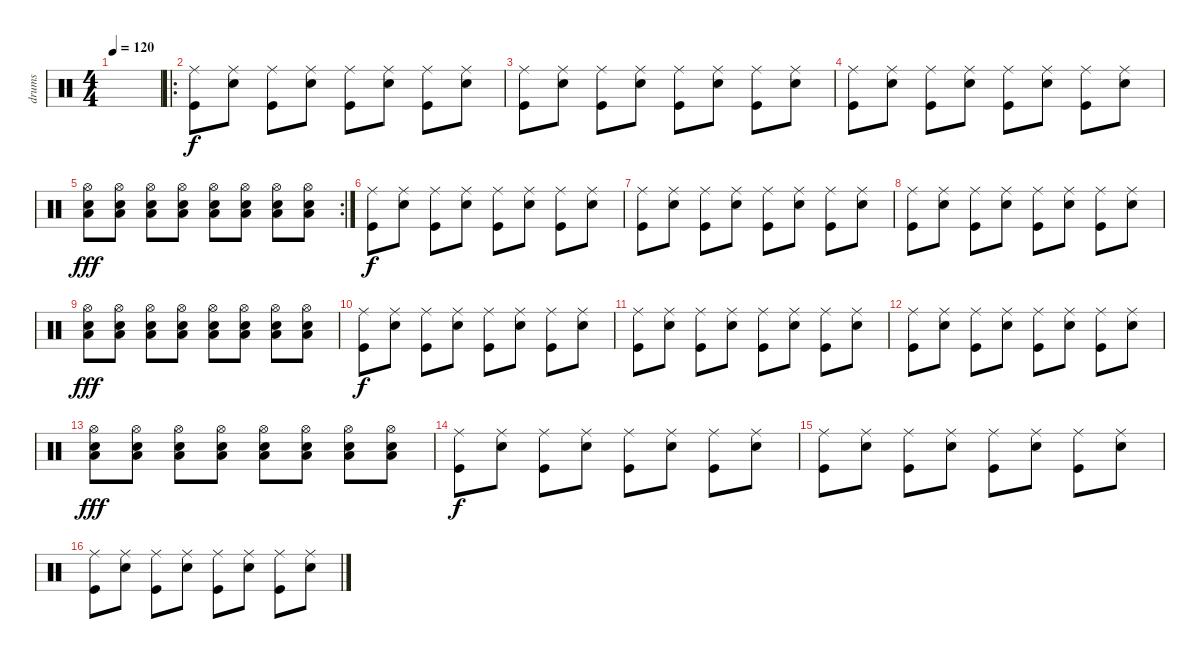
\track ("drums" "drums") {instrument percussion}
\staff {score}
\articulation defaults
\ts (4 4)
\tempo 120
\clef neutral
\ks c
|
\ro
("Ride (middle)" "Kick (hit)").8 ("Ride (middle)" "Snare (hit) 2").8 ("Ride (middle)" "Kick (hit)").8 ("Ride (middle)" "Snare (hit) 2").8 ("Ride (middle)" "Kick (hit)").8 ("Ride (middle)" "Snare (hit) 2").8 ("Ride (middle)" "Kick (hit)").8 ("Ride (middle)" "Snare (hit) 2").8 |
("Ride (middle)" "Kick (hit)").8 ("Ride (middle)" "Snare (hit) 2").8 ("Ride (middle)" "Kick (hit)").8 ("Ride (middle)" "Snare (hit) 2").8 ("Ride (middle)" "Kick (hit)").8 ("Ride (middle)" "Snare (hit) 2").8 ("Ride (middle)" "Kick (hit)").8 ("Ride (middle)" "Snare (hit) 2").8 |
("Ride (middle)" "Kick (hit)").8 ("Ride (middle)" "Snare (hit) 2").8 ("Ride (middle)" "Kick (hit)").8 ("Ride (middle)" "Snare (hit) 2").8 ("Ride (middle)" "Kick (hit)").8 ("Ride (middle)" "Snare (hit) 2").8 ("Ride (middle)" "Kick (hit)").8 ("Ride (middle)" "Snare (hit) 2").8 |
\rc 2
("Hi-Hat (open)" "Low Floor Tom (hit)" "Snare (hit) 2").8{dy fff} ("Hi-Hat (open)" "Low Floor Tom (hit)" "Snare (hit) 2").8 ("Hi-Hat (open)" "Low Floor Tom (hit)" "Snare (hit) 2").8 ("Hi-Hat (open)" "Low Floor Tom (hit)" "Snare (hit) 2").8 ("Hi-Hat (open)" "Low Floor Tom (hit)" "Snare (hit) 2").8 ("Hi-Hat (open)" "Low Floor Tom (hit)" "Snare (hit) 2").8 ("Hi-Hat (open)" "Low Floor Tom (hit)" "Snare (hit) 2").8 ("Hi-Hat (open)" "Low Floor Tom (hit)" "Snare (hit) 2").8 |
("Ride (middle)" "Kick (hit)").8{dy f} ("Ride (middle)" "Snare (hit) 2").8 ("Ride (middle)" "Kick (hit)").8 ("Ride (middle)" "Snare (hit) 2").8 ("Ride (middle)" "Kick (hit)").8 ("Ride (middle)" "Snare (hit) 2").8 ("Ride (middle)" "Kick (hit)").8 ("Ride (middle)" "Snare (hit) 2").8 |
("Ride (middle)" "Kick (hit)").8 ("Ride (middle)" "Snare (hit) 2").8 ("Ride (middle)" "Kick (hit)").8 ("Ride (middle)" "Snare (hit) 2").8 ("Ride (middle)" "Kick (hit)").8 ("Ride (middle)" "Snare (hit) 2").8 ("Ride (middle)" "Kick (hit)").8 ("Ride (middle)" "Snare (hit) 2").8 |
("Ride (middle)" "Kick (hit)").8 ("Ride (middle)" "Snare (hit) 2").8 ("Ride (middle)" "Kick (hit)").8 ("Ride (middle)" "Snare (hit) 2").8 ("Ride (middle)" "Kick (hit)").8 ("Ride (middle)" "Snare (hit) 2").8 ("Ride (middle)" "Kick (hit)").8 ("Ride (middle)" "Snare (hit) 2").8 |
("Hi-Hat (open)" "Low Floor Tom (hit)" "Snare (hit) 2").8{dy fff} ("Hi-Hat (open)" "Low Floor Tom (hit)" "Snare (hit) 2").8 ("Hi-Hat (open)" "Low Floor Tom (hit)" "Snare (hit) 2").8 ("Hi-Hat (open)" "Low Floor Tom (hit)" "Snare (hit) 2").8 ("Hi-Hat (open)" "Low Floor Tom (hit)" "Snare (hit) 2").8 ("Hi-Hat (open)" "Low Floor Tom (hit)" "Snare (hit) 2").8 ("Hi-Hat (open)" "Low Floor Tom (hit)" "Snare (hit) 2").8 ("Hi-Hat (open)" "Low Floor Tom (hit)" "Snare (hit) 2").8 |
("Ride (middle)" "Kick (hit)").8{dy f} ("Ride (middle)" "Snare (hit) 2").8 ("Ride (middle)" "Kick (hit)").8 ("Ride (middle)" "Snare (hit) 2").8 ("Ride (middle)" "Kick (hit)").8 ("Ride (middle)" "Snare (hit) 2").8 ("Ride (middle)" "Kick (hit)").8 ("Ride (middle)" "Snare (hit) 2").8 |
("Ride (middle)" "Kick (hit)").8 ("Ride (middle)" "Snare (hit) 2").8 ("Ride (middle)" "Kick (hit)").8 ("Ride (middle)" "Snare (hit) 2").8 ("Ride (middle)" "Kick (hit)").8 ("Ride (middle)" "Snare (hit) 2").8 ("Ride (middle)" "Kick (hit)").8 ("Ride (middle)" "Snare (hit) 2").8 |
("Ride (middle)" "Kick (hit)").8 ("Ride (middle)" "Snare (hit) 2").8 ("Ride (middle)" "Kick (hit)").8 ("Ride (middle)" "Snare (hit) 2").8 ("Ride (middle)" "Kick (hit)").8 ("Ride (middle)" "Snare (hit) 2").8 ("Ride (middle)" "Kick (hit)").8 ("Ride (middle)" "Snare (hit) 2").8 |
("Hi-Hat (open)" "Low Floor Tom (hit)" "Snare (hit) 2").8{dy fff} ("Hi-Hat (open)" "Low Floor Tom (hit)" "Snare (hit) 2").8 ("Hi-Hat (open)" "Low Floor Tom (hit)" "Snare (hit) 2").8 ("Hi-Hat (open)" "Low Floor Tom (hit)" "Snare (hit) 2").8 ("Hi-Hat (open)" "Low Floor Tom (hit)" "Snare (hit) 2").8 ("Hi-Hat (open)" "Low Floor Tom (hit)" "Snare (hit) 2").8 ("Hi-Hat (open)" "Low Floor Tom (hit)" "Snare (hit) 2").8 ("Hi-Hat (open)" "Low Floor Tom (hit)" "Snare (hit) 2").8 |
("Ride (middle)" "Kick (hit)").8{dy f} ("Ride (middle)" "Snare (hit) 2").8 ("Ride (middle)" "Kick (hit)").8 ("Ride (middle)" "Snare (hit) 2").8 ("Ride (middle)" "Kick (hit)").8 ("Ride (middle)" "Snare (hit) 2").8 ("Ride (middle)" "Kick (hit)").8 ("Ride (middle)" "Snare (hit) 2").8 |
("Ride (middle)" "Kick (hit)").8 ("Ride (middle)" "Snare (hit) 2").8 ("Ride (middle)" "Kick (hit)").8 ("Ride (middle)" "Snare (hit) 2").8 ("Ride (middle)" "Kick (hit)").8 ("Ride (middle)" "Snare (hit) 2").8 ("Ride (middle)" "Kick (hit)").8 ("Ride (middle)" "Snare (hit) 2").8 |
("Ride (middle)" "Kick (hit)").8 ("Ride (middle)" "Snare (hit) 2").8 ("Ride (middle)" "Kick (hit)").8 ("Ride (middle)" "Snare (hit) 2").8 ("Ride (middle)" "Kick (hit)").8 ("Ride (middle)" "Snare (hit) 2").8 ("Ride (middle)" "Kick (hit)").8 ("Ride (middle)" "Snare (hit) 2").8
